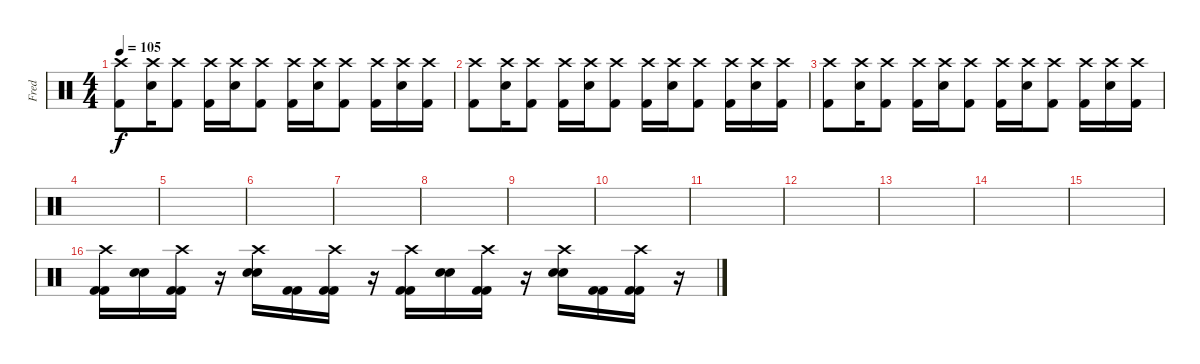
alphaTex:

\track ("Fred" "Fred") {instrument percussion}
\staff {score}
\articulation defaults
\ts (4 4)
\tempo 105
\clef neutral
\ks c
("Crash high (hit)" "Kick (hit) 2").8{dy f} ("Crash high (hit)" "Electric Snare (hit)").16 ("Crash high (hit)" "Kick (hit) 2").8 ("Crash high (hit)" "Kick (hit) 2").16 ("Crash high (hit)" "Electric Snare (hit)").16 ("Crash high (hit)" "Kick (hit) 2").8 ("Crash high (hit)" "Kick (hit) 2").16 ("Crash high (hit)" "Electric Snare (hit)").16 ("Crash high (hit)" "Kick (hit) 2").8 ("Crash high (hit)" "Kick (hit) 2").16 ("Crash high (hit)" "Electric Snare (hit)").16 ("Crash high (hit)" "Kick (hit) 2").16 |
("Crash high (hit)" "Kick (hit) 2").8 ("Crash high (hit)" "Electric Snare (hit)").16 ("Crash high (hit)" "Kick (hit) 2").8 ("Crash high (hit)" "Kick (hit) 2").16 ("Crash high (hit)" "Electric Snare (hit)").16 ("Crash high (hit)" "Kick (hit) 2").8 ("Crash high (hit)" "Kick (hit) 2").16 ("Crash high (hit)" "Electric Snare (hit)").16 ("Crash high (hit)" "Kick (hit) 2").8 ("Crash high (hit)" "Kick (hit) 2").16 ("Crash high (hit)" "Electric Snare (hit)").16 ("Crash high (hit)" "Kick (hit) 2").16 |
("Crash high (hit)" "Kick (hit) 2").8 ("Crash high (hit)" "Electric Snare (hit)").16 ("Crash high (hit)" "Kick (hit) 2").8 ("Crash high (hit)" "Kick (hit) 2").16 ("Crash high (hit)" "Electric Snare (hit)").16 ("Crash high (hit)" "Kick (hit) 2").8 ("Crash high (hit)" "Kick (hit) 2").16 ("Crash high (hit)" "Electric Snare (hit)").16 ("Crash high (hit)" "Kick (hit) 2").8 ("Crash high (hit)" "Kick (hit) 2").16 ("Crash high (hit)" "Electric Snare (hit)").16 ("Crash high (hit)" "Kick (hit) 2").16 |
|
|
|
|
|
|
|
|
|
|
|
|
("Crash high (hit)" "Kick (hit) 2" "Kick (hit) 2").16 ("Electric Snare (hit)" "Electric Snare (hit)").16 ("Crash high (hit)" "Kick (hit) 2" "Kick (hit) 2").16 r.16 ("Crash high (hit)" "Electric Snare (hit)" "Electric Snare (hit)").16 ("Kick (hit) 2" "Kick (hit) 2").16 ("Crash high (hit)" "Kick (hit) 2" "Kick (hit) 2").16 r.16 ("Crash high (hit)" "Kick (hit) 2" "Kick (hit) 2").16 ("Electric Snare (hit)" "Electric Snare (hit)").16 ("Crash high (hit)" "Kick (hit) 2" "Kick (hit) 2").16 r.16 ("Crash high (hit)" "Electric Snare (hit)" "Electric Snare (hit)").16 ("Kick (hit) 2" "Kick (hit) 2").16 ("Crash high (hit)" "Kick (hit) 2" "Kick (hit) 2").16 r.16
